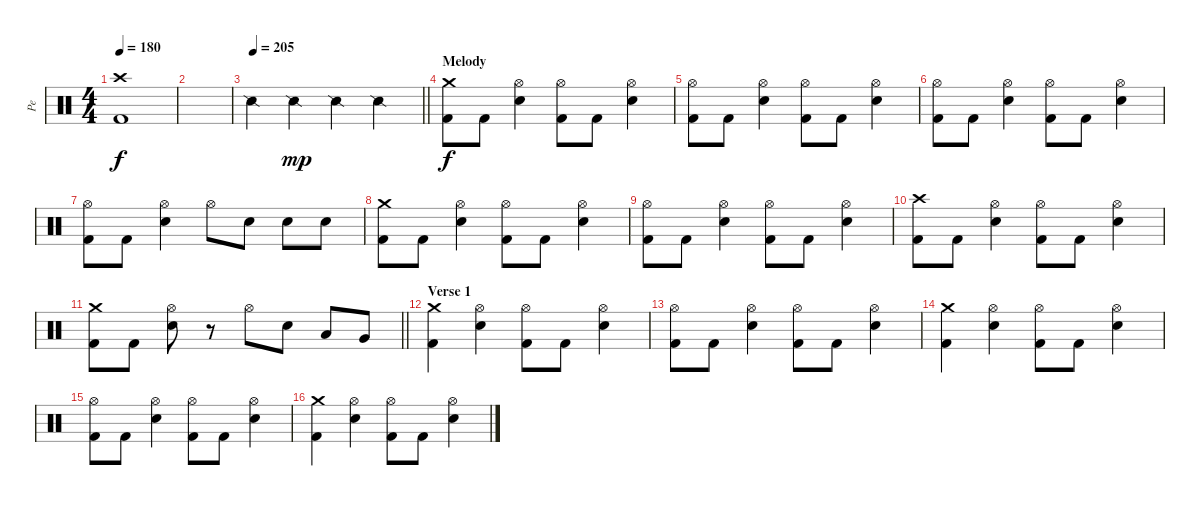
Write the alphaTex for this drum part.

\track ("Pe" "Pe") {instrument percussion}
\staff {score}
\articulation defaults
\ts (4 4)
\tempo 180
\clef neutral
\ks c
("Crash high (hit)" "Kick (hit) 2").1{dy f} |
|
\tempo 205
\barLineRight lightlight "Snare (side stick) 2".4 "Snare (side stick) 2".4{dy mp} "Snare (side stick) 2".4 "Snare (side stick) 2".4
|
\section ("" "Melody")
("Crash medium (hit)" "Kick (hit) 2").8{dy f} "Kick (hit) 2".8 ("Hi-Hat (open)" "Electric Snare (hit)").4 ("Hi-Hat (open)" "Kick (hit) 2").8 "Kick (hit) 2".8 ("Hi-Hat (open)" "Electric Snare (hit)").4 |
("Hi-Hat (open)" "Kick (hit) 2").8 "Kick (hit) 2".8 ("Hi-Hat (open)" "Electric Snare (hit)").4 ("Hi-Hat (open)" "Kick (hit) 2").8 "Kick (hit) 2".8 ("Hi-Hat (open)" "Electric Snare (hit)").4 |
("Hi-Hat (open)" "Kick (hit) 2").8 "Kick (hit) 2".8 ("Hi-Hat (open)" "Electric Snare (hit)").4 ("Hi-Hat (open)" "Kick (hit) 2").8 "Kick (hit) 2".8 ("Hi-Hat (open)" "Electric Snare (hit)").4 |
("Hi-Hat (open)" "Kick (hit) 2").8 "Kick (hit) 2".8 ("Hi-Hat (open)" "Electric Snare (hit)").4 "Hi-Hat (open)".8 "Electric Snare (hit)".8 "Electric Snare (hit)".8 "Electric Snare (hit)".8 |
("Crash medium (hit)" "Kick (hit) 2").8 "Kick (hit) 2".8 ("Hi-Hat (open)" "Electric Snare (hit)").4 ("Hi-Hat (open)" "Kick (hit) 2").8 "Kick (hit) 2".8 ("Hi-Hat (open)" "Electric Snare (hit)").4 |
("Hi-Hat (open)" "Kick (hit) 2").8 "Kick (hit) 2".8 ("Hi-Hat (open)" "Electric Snare (hit)").4 ("Hi-Hat (open)" "Kick (hit) 2").8 "Kick (hit) 2".8 ("Hi-Hat (open)" "Electric Snare (hit)").4 |
("Crash high (hit)" "Kick (hit) 2").8 "Kick (hit) 2".8 ("Hi-Hat (open)" "Electric Snare (hit)").4 ("Hi-Hat (open)" "Kick (hit) 2").8 "Kick (hit) 2".8 ("Hi-Hat (open)" "Electric Snare (hit)").4 |
\barLineRight lightlight
("Crash medium (hit)" "Kick (hit) 2").8 "Kick (hit) 2".8 ("Hi-Hat (open)" "Electric Snare (hit)").8 r.8 "Hi-Hat (open)".8 "Electric Snare (hit)".8 "Low Tom (hit)".8 "Very Low Tom (hit)".8 |
\section ("" "Verse 1")
("Crash medium (hit)" "Kick (hit) 2").4 ("Hi-Hat (open)" "Electric Snare (hit)").4 ("Hi-Hat (open)" "Kick (hit) 2").8 "Kick (hit) 2".8 ("Hi-Hat (open)" "Electric Snare (hit)").4 |
("Hi-Hat (open)" "Kick (hit) 2").8 "Kick (hit) 2".8 ("Hi-Hat (open)" "Electric Snare (hit)").4 ("Hi-Hat (open)" "Kick (hit) 2").8 "Kick (hit) 2".8 ("Hi-Hat (open)" "Electric Snare (hit)").4 |
("Crash medium (hit)" "Kick (hit) 2").4 ("Hi-Hat (open)" "Electric Snare (hit)").4 ("Hi-Hat (open)" "Kick (hit) 2").8 "Kick (hit) 2".8 ("Hi-Hat (open)" "Electric Snare (hit)").4 |
("Hi-Hat (open)" "Kick (hit) 2").8 "Kick (hit) 2".8 ("Hi-Hat (open)" "Electric Snare (hit)").4 ("Hi-Hat (open)" "Kick (hit) 2").8 "Kick (hit) 2".8 ("Hi-Hat (open)" "Electric Snare (hit)").4 |
("Crash medium (hit)" "Kick (hit) 2").4 ("Hi-Hat (open)" "Electric Snare (hit)").4 ("Hi-Hat (open)" "Kick (hit) 2").8 "Kick (hit) 2".8 ("Hi-Hat (open)" "Electric Snare (hit)").4
